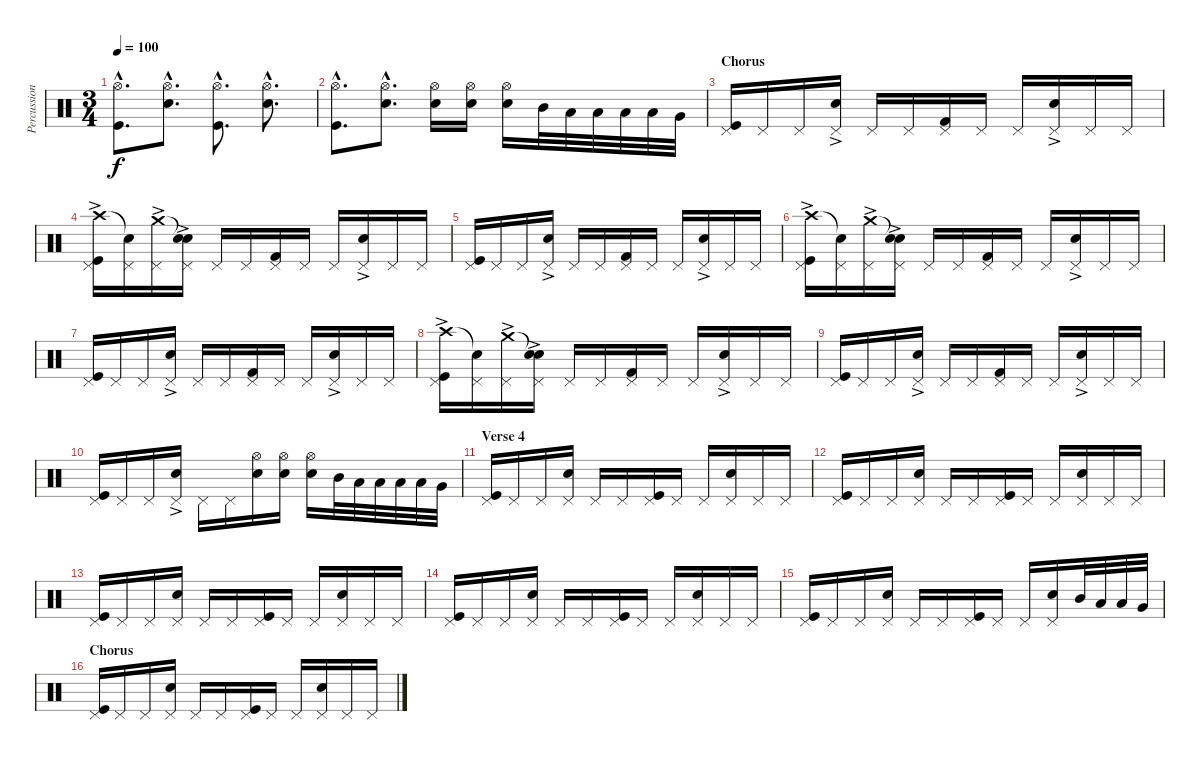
\track ("Percussion" "Percussion") {instrument percussion}
\staff {score}
\articulation defaults
\ts (3 4)
\tempo 100
\clef neutral
\ks c
("Hi-Hat (open)"{hac} "Kick (hit)"{hac}).8{d dy f} ("Hi-Hat (open)"{hac} "Snare (hit) 2"{hac}).8{d} ("Hi-Hat (open)"{hac} "Kick (hit)"{hac}).8{d} ("Hi-Hat (open)"{hac} "Snare (hit) 2"{hac}).8{d} |
("Hi-Hat (open)"{hac} "Kick (hit)"{hac}).8{d} ("Hi-Hat (open)"{hac} "Snare (hit) 2"{hac}).8{d} ("Hi-Hat (open)" "Snare (hit) 2").16 ("Hi-Hat (open)" "Snare (hit) 2").16 ("Hi-Hat (open)" "Snare (hit) 2").16 "Mid Tom (hit)".32 "Low Tom (hit)".32 "Low Tom (hit)".32 "Low Tom (hit)".32 "Low Tom (hit)".32 "Very Low Tom (hit)".32 |
\section ("" "Chorus")
("Pedal Hi-Hat (hit)" "Kick (hit)").16 "Pedal Hi-Hat (hit)".16 "Pedal Hi-Hat (hit)".16 ("Pedal Hi-Hat (hit)" "Hand Clap (hit)"{ac}).16 "Pedal Hi-Hat (hit)".16 "Pedal Hi-Hat (hit)".16 ("Pedal Hi-Hat (hit)" "Kick (hit) 2").16 "Pedal Hi-Hat (hit)".16 "Pedal Hi-Hat (hit)".16 ("Pedal Hi-Hat (hit)" "Hand Clap (hit)"{ac}).16 "Pedal Hi-Hat (hit)".16 "Pedal Hi-Hat (hit)".16 |
("Pedal Hi-Hat (hit)" "Crash high (hit)"{ac} "Kick (hit)").16 ("Pedal Hi-Hat (hit)" "Snare (hit)"{t}).16 ("Pedal Hi-Hat (hit)" "Crash medium (hit)"{ac}).16 ("Pedal Hi-Hat (hit)" "Snare (hit)"{t} "Hand Clap (hit)"{ac}).16 "Pedal Hi-Hat (hit)".16 "Pedal Hi-Hat (hit)".16 ("Pedal Hi-Hat (hit)" "Kick (hit) 2").16 "Pedal Hi-Hat (hit)".16 "Pedal Hi-Hat (hit)".16 ("Pedal Hi-Hat (hit)" "Hand Clap (hit)"{ac}).16 "Pedal Hi-Hat (hit)".16 "Pedal Hi-Hat (hit)".16 |
("Pedal Hi-Hat (hit)" "Kick (hit)").16 "Pedal Hi-Hat (hit)".16 "Pedal Hi-Hat (hit)".16 ("Pedal Hi-Hat (hit)" "Hand Clap (hit)"{ac}).16 "Pedal Hi-Hat (hit)".16 "Pedal Hi-Hat (hit)".16 ("Pedal Hi-Hat (hit)" "Kick (hit) 2").16 "Pedal Hi-Hat (hit)".16 "Pedal Hi-Hat (hit)".16 ("Pedal Hi-Hat (hit)" "Hand Clap (hit)"{ac}).16 "Pedal Hi-Hat (hit)".16 "Pedal Hi-Hat (hit)".16 |
("Pedal Hi-Hat (hit)" "Crash high (hit)"{ac} "Kick (hit)").16 ("Pedal Hi-Hat (hit)" "Snare (hit)"{t}).16 ("Pedal Hi-Hat (hit)" "Crash medium (hit)"{ac}).16 ("Pedal Hi-Hat (hit)" "Snare (hit)"{t} "Hand Clap (hit)"{ac}).16 "Pedal Hi-Hat (hit)".16 "Pedal Hi-Hat (hit)".16 ("Pedal Hi-Hat (hit)" "Kick (hit) 2").16 "Pedal Hi-Hat (hit)".16 "Pedal Hi-Hat (hit)".16 ("Pedal Hi-Hat (hit)" "Hand Clap (hit)"{ac}).16 "Pedal Hi-Hat (hit)".16 "Pedal Hi-Hat (hit)".16 |
("Pedal Hi-Hat (hit)" "Kick (hit)").16 "Pedal Hi-Hat (hit)".16 "Pedal Hi-Hat (hit)".16 ("Pedal Hi-Hat (hit)" "Hand Clap (hit)"{ac}).16 "Pedal Hi-Hat (hit)".16 "Pedal Hi-Hat (hit)".16 ("Pedal Hi-Hat (hit)" "Kick (hit) 2").16 "Pedal Hi-Hat (hit)".16 "Pedal Hi-Hat (hit)".16 ("Pedal Hi-Hat (hit)" "Hand Clap (hit)"{ac}).16 "Pedal Hi-Hat (hit)".16 "Pedal Hi-Hat (hit)".16 |
("Pedal Hi-Hat (hit)" "Crash high (hit)"{ac} "Kick (hit)").16 ("Pedal Hi-Hat (hit)" "Snare (hit)"{t}).16 ("Pedal Hi-Hat (hit)" "Crash medium (hit)"{ac}).16 ("Pedal Hi-Hat (hit)" "Snare (hit)"{t} "Hand Clap (hit)"{ac}).16 "Pedal Hi-Hat (hit)".16 "Pedal Hi-Hat (hit)".16 ("Pedal Hi-Hat (hit)" "Kick (hit) 2").16 "Pedal Hi-Hat (hit)".16 "Pedal Hi-Hat (hit)".16 ("Pedal Hi-Hat (hit)" "Hand Clap (hit)"{ac}).16 "Pedal Hi-Hat (hit)".16 "Pedal Hi-Hat (hit)".16 |
("Pedal Hi-Hat (hit)" "Kick (hit)").16 "Pedal Hi-Hat (hit)".16 "Pedal Hi-Hat (hit)".16 ("Pedal Hi-Hat (hit)" "Hand Clap (hit)"{ac}).16 "Pedal Hi-Hat (hit)".16 "Pedal Hi-Hat (hit)".16 ("Pedal Hi-Hat (hit)" "Kick (hit) 2").16 "Pedal Hi-Hat (hit)".16 "Pedal Hi-Hat (hit)".16 ("Pedal Hi-Hat (hit)" "Hand Clap (hit)"{ac}).16 "Pedal Hi-Hat (hit)".16 "Pedal Hi-Hat (hit)".16 |
("Pedal Hi-Hat (hit)" "Kick (hit)").16 "Pedal Hi-Hat (hit)".16 "Pedal Hi-Hat (hit)".16 ("Pedal Hi-Hat (hit)" "Hand Clap (hit)"{ac}).16 "Pedal Hi-Hat (hit)".16 "Pedal Hi-Hat (hit)".16 ("Hi-Hat (open)" "Snare (hit) 2").16 ("Hi-Hat (open)" "Snare (hit) 2").16 ("Hi-Hat (open)" "Snare (hit) 2").16 "Mid Tom (hit)".32 "Low Tom (hit)".32 "Low Tom (hit)".32 "Low Tom (hit)".32 "Low Tom (hit)".32 "Very Low Tom (hit)".32 |
\section ("" "Verse 4")
("Pedal Hi-Hat (hit)" "Kick (hit)").16 "Pedal Hi-Hat (hit)".16 "Pedal Hi-Hat (hit)".16 ("Pedal Hi-Hat (hit)" "Snare (hit) 2").16 "Pedal Hi-Hat (hit)".16 "Pedal Hi-Hat (hit)".16 ("Pedal Hi-Hat (hit)" "Kick (hit)").16 "Pedal Hi-Hat (hit)".16 "Pedal Hi-Hat (hit)".16 ("Pedal Hi-Hat (hit)" "Snare (hit) 2").16 "Pedal Hi-Hat (hit)".16 "Pedal Hi-Hat (hit)".16 |
("Pedal Hi-Hat (hit)" "Kick (hit)").16 "Pedal Hi-Hat (hit)".16 "Pedal Hi-Hat (hit)".16 ("Pedal Hi-Hat (hit)" "Snare (hit) 2").16 "Pedal Hi-Hat (hit)".16 "Pedal Hi-Hat (hit)".16 ("Pedal Hi-Hat (hit)" "Kick (hit)").16 "Pedal Hi-Hat (hit)".16 "Pedal Hi-Hat (hit)".16 ("Pedal Hi-Hat (hit)" "Snare (hit) 2").16 "Pedal Hi-Hat (hit)".16 "Pedal Hi-Hat (hit)".16 |
("Pedal Hi-Hat (hit)" "Kick (hit)").16 "Pedal Hi-Hat (hit)".16 "Pedal Hi-Hat (hit)".16 ("Pedal Hi-Hat (hit)" "Snare (hit) 2").16 "Pedal Hi-Hat (hit)".16 "Pedal Hi-Hat (hit)".16 ("Pedal Hi-Hat (hit)" "Kick (hit)").16 "Pedal Hi-Hat (hit)".16 "Pedal Hi-Hat (hit)".16 ("Pedal Hi-Hat (hit)" "Snare (hit) 2").16 "Pedal Hi-Hat (hit)".16 "Pedal Hi-Hat (hit)".16 |
("Pedal Hi-Hat (hit)" "Kick (hit)").16 "Pedal Hi-Hat (hit)".16 "Pedal Hi-Hat (hit)".16 ("Pedal Hi-Hat (hit)" "Snare (hit) 2").16 "Pedal Hi-Hat (hit)".16 "Pedal Hi-Hat (hit)".16 ("Pedal Hi-Hat (hit)" "Kick (hit)").16 "Pedal Hi-Hat (hit)".16 "Pedal Hi-Hat (hit)".16 ("Pedal Hi-Hat (hit)" "Snare (hit) 2").16 "Pedal Hi-Hat (hit)".16 "Pedal Hi-Hat (hit)".16 |
("Pedal Hi-Hat (hit)" "Kick (hit)").16 "Pedal Hi-Hat (hit)".16 "Pedal Hi-Hat (hit)".16 ("Pedal Hi-Hat (hit)" "Snare (hit) 2").16 "Pedal Hi-Hat (hit)".16 "Pedal Hi-Hat (hit)".16 ("Pedal Hi-Hat (hit)" "Kick (hit)").16 "Pedal Hi-Hat (hit)".16 "Pedal Hi-Hat (hit)".16 ("Pedal Hi-Hat (hit)" "Snare (hit) 2").16 "Mid Tom (hit)".32 "Low Tom (hit)".32 "Low Tom (hit)".32 "Very Low Tom (hit)".32 |
\section ("" "Chorus")
("Pedal Hi-Hat (hit)" "Kick (hit)").16 "Pedal Hi-Hat (hit)".16 "Pedal Hi-Hat (hit)".16 ("Pedal Hi-Hat (hit)" "Snare (hit) 2").16 "Pedal Hi-Hat (hit)".16 "Pedal Hi-Hat (hit)".16 ("Pedal Hi-Hat (hit)" "Kick (hit)").16 "Pedal Hi-Hat (hit)".16 "Pedal Hi-Hat (hit)".16 ("Pedal Hi-Hat (hit)" "Snare (hit) 2").16 "Pedal Hi-Hat (hit)".16 "Pedal Hi-Hat (hit)".16
